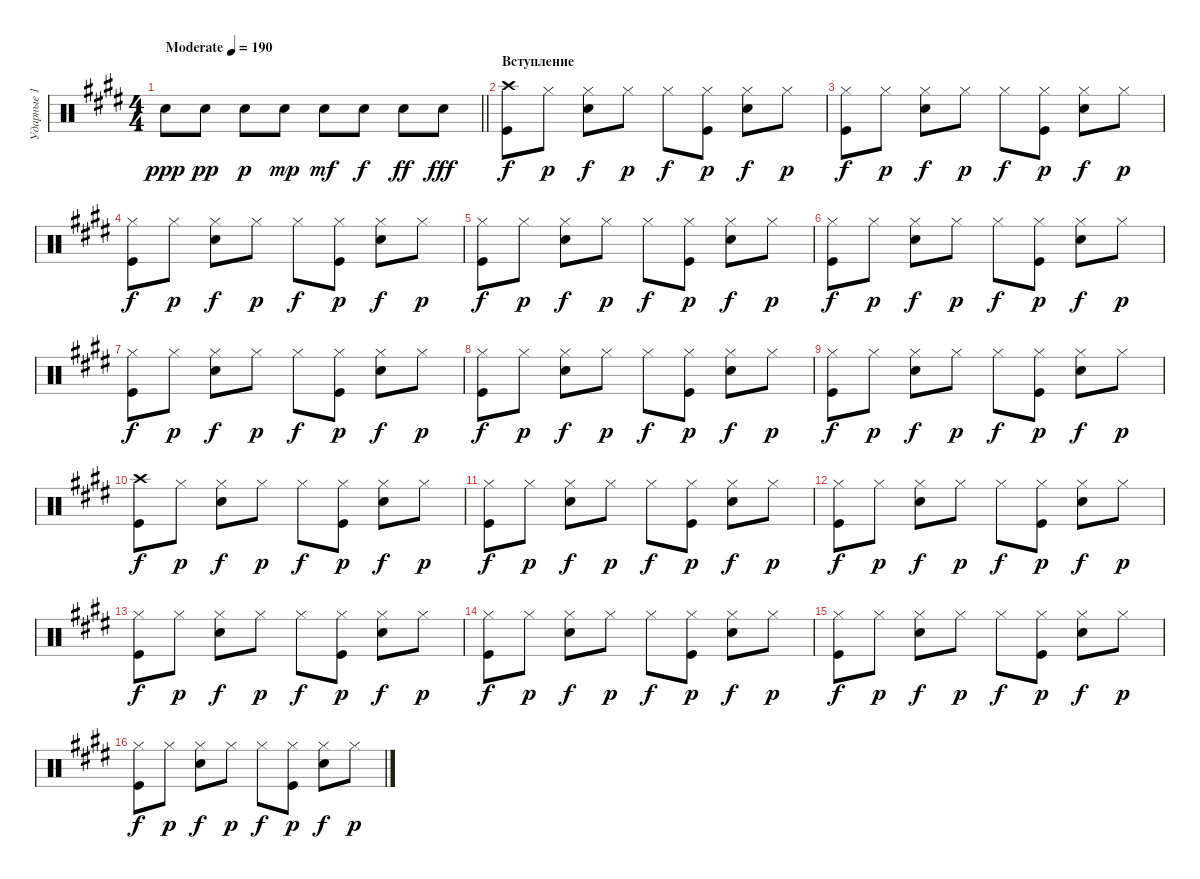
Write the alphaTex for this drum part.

\track ("Ударные 1" "Ударные 1") {instrument percussion}
\staff {score}
\articulation defaults
\ts (4 4)
\tempo (190 "Moderate")
\clef neutral
\barLineRight lightlight
\ks c#minor "Snare (hit) 2".8{dy ppp} "Snare (hit) 2".8{dy pp} "Snare (hit) 2".8{dy p} "Snare (hit) 2".8{dy mp} "Snare (hit) 2".8{dy mf} "Snare (hit) 2".8{dy f} "Snare (hit) 2".8{dy ff} "Snare (hit) 2".8{dy fff}
|
\section ("" "Вступление")
("Crash high (hit)" "Kick (hit)").8{dy f} "Hi-Hat (closed)".8{dy p} ("Hi-Hat (closed)" "Snare (hit) 2").8{dy f} "Hi-Hat (closed)".8{dy p} "Hi-Hat (closed)".8{dy f} ("Hi-Hat (closed)" "Kick (hit)").8{dy p} ("Hi-Hat (closed)" "Snare (hit) 2").8{dy f} "Hi-Hat (closed)".8{dy p} |
("Hi-Hat (closed)" "Kick (hit)").8{dy f} "Hi-Hat (closed)".8{dy p} ("Hi-Hat (closed)" "Snare (hit) 2").8{dy f} "Hi-Hat (closed)".8{dy p} "Hi-Hat (closed)".8{dy f} ("Hi-Hat (closed)" "Kick (hit)").8{dy p} ("Hi-Hat (closed)" "Snare (hit) 2").8{dy f} "Hi-Hat (closed)".8{dy p} |
("Hi-Hat (closed)" "Kick (hit)").8{dy f} "Hi-Hat (closed)".8{dy p} ("Hi-Hat (closed)" "Snare (hit) 2").8{dy f} "Hi-Hat (closed)".8{dy p} "Hi-Hat (closed)".8{dy f} ("Hi-Hat (closed)" "Kick (hit)").8{dy p} ("Hi-Hat (closed)" "Snare (hit) 2").8{dy f} "Hi-Hat (closed)".8{dy p} |
("Hi-Hat (closed)" "Kick (hit)").8{dy f} "Hi-Hat (closed)".8{dy p} ("Hi-Hat (closed)" "Snare (hit) 2").8{dy f} "Hi-Hat (closed)".8{dy p} "Hi-Hat (closed)".8{dy f} ("Hi-Hat (closed)" "Kick (hit)").8{dy p} ("Hi-Hat (closed)" "Snare (hit) 2").8{dy f} "Hi-Hat (closed)".8{dy p} |
("Hi-Hat (closed)" "Kick (hit)").8{dy f} "Hi-Hat (closed)".8{dy p} ("Hi-Hat (closed)" "Snare (hit) 2").8{dy f} "Hi-Hat (closed)".8{dy p} "Hi-Hat (closed)".8{dy f} ("Hi-Hat (closed)" "Kick (hit)").8{dy p} ("Hi-Hat (closed)" "Snare (hit) 2").8{dy f} "Hi-Hat (closed)".8{dy p} |
("Hi-Hat (closed)" "Kick (hit)").8{dy f} "Hi-Hat (closed)".8{dy p} ("Hi-Hat (closed)" "Snare (hit) 2").8{dy f} "Hi-Hat (closed)".8{dy p} "Hi-Hat (closed)".8{dy f} ("Hi-Hat (closed)" "Kick (hit)").8{dy p} ("Hi-Hat (closed)" "Snare (hit) 2").8{dy f} "Hi-Hat (closed)".8{dy p} |
("Hi-Hat (closed)" "Kick (hit)").8{dy f} "Hi-Hat (closed)".8{dy p} ("Hi-Hat (closed)" "Snare (hit) 2").8{dy f} "Hi-Hat (closed)".8{dy p} "Hi-Hat (closed)".8{dy f} ("Hi-Hat (closed)" "Kick (hit)").8{dy p} ("Hi-Hat (closed)" "Snare (hit) 2").8{dy f} "Hi-Hat (closed)".8{dy p} |
("Hi-Hat (closed)" "Kick (hit)").8{dy f} "Hi-Hat (closed)".8{dy p} ("Hi-Hat (closed)" "Snare (hit) 2").8{dy f} "Hi-Hat (closed)".8{dy p} "Hi-Hat (closed)".8{dy f} ("Hi-Hat (closed)" "Kick (hit)").8{dy p} ("Hi-Hat (closed)" "Snare (hit) 2").8{dy f} "Hi-Hat (closed)".8{dy p} |
("Crash high (hit)" "Kick (hit)").8{dy f} "Hi-Hat (closed)".8{dy p} ("Hi-Hat (closed)" "Snare (hit) 2").8{dy f} "Hi-Hat (closed)".8{dy p} "Hi-Hat (closed)".8{dy f} ("Hi-Hat (closed)" "Kick (hit)").8{dy p} ("Hi-Hat (closed)" "Snare (hit) 2").8{dy f} "Hi-Hat (closed)".8{dy p} |
("Hi-Hat (closed)" "Kick (hit)").8{dy f} "Hi-Hat (closed)".8{dy p} ("Hi-Hat (closed)" "Snare (hit) 2").8{dy f} "Hi-Hat (closed)".8{dy p} "Hi-Hat (closed)".8{dy f} ("Hi-Hat (closed)" "Kick (hit)").8{dy p} ("Hi-Hat (closed)" "Snare (hit) 2").8{dy f} "Hi-Hat (closed)".8{dy p} |
("Hi-Hat (closed)" "Kick (hit)").8{dy f} "Hi-Hat (closed)".8{dy p} ("Hi-Hat (closed)" "Snare (hit) 2").8{dy f} "Hi-Hat (closed)".8{dy p} "Hi-Hat (closed)".8{dy f} ("Hi-Hat (closed)" "Kick (hit)").8{dy p} ("Hi-Hat (closed)" "Snare (hit) 2").8{dy f} "Hi-Hat (closed)".8{dy p} |
("Hi-Hat (closed)" "Kick (hit)").8{dy f} "Hi-Hat (closed)".8{dy p} ("Hi-Hat (closed)" "Snare (hit) 2").8{dy f} "Hi-Hat (closed)".8{dy p} "Hi-Hat (closed)".8{dy f} ("Hi-Hat (closed)" "Kick (hit)").8{dy p} ("Hi-Hat (closed)" "Snare (hit) 2").8{dy f} "Hi-Hat (closed)".8{dy p} |
("Hi-Hat (closed)" "Kick (hit)").8{dy f} "Hi-Hat (closed)".8{dy p} ("Hi-Hat (closed)" "Snare (hit) 2").8{dy f} "Hi-Hat (closed)".8{dy p} "Hi-Hat (closed)".8{dy f} ("Hi-Hat (closed)" "Kick (hit)").8{dy p} ("Hi-Hat (closed)" "Snare (hit) 2").8{dy f} "Hi-Hat (closed)".8{dy p} |
("Hi-Hat (closed)" "Kick (hit)").8{dy f} "Hi-Hat (closed)".8{dy p} ("Hi-Hat (closed)" "Snare (hit) 2").8{dy f} "Hi-Hat (closed)".8{dy p} "Hi-Hat (closed)".8{dy f} ("Hi-Hat (closed)" "Kick (hit)").8{dy p} ("Hi-Hat (closed)" "Snare (hit) 2").8{dy f} "Hi-Hat (closed)".8{dy p} |
("Hi-Hat (closed)" "Kick (hit)").8{dy f} "Hi-Hat (closed)".8{dy p} ("Hi-Hat (closed)" "Snare (hit) 2").8{dy f} "Hi-Hat (closed)".8{dy p} "Hi-Hat (closed)".8{dy f} ("Hi-Hat (closed)" "Kick (hit)").8{dy p} ("Hi-Hat (closed)" "Snare (hit) 2").8{dy f} "Hi-Hat (closed)".8{dy p}
